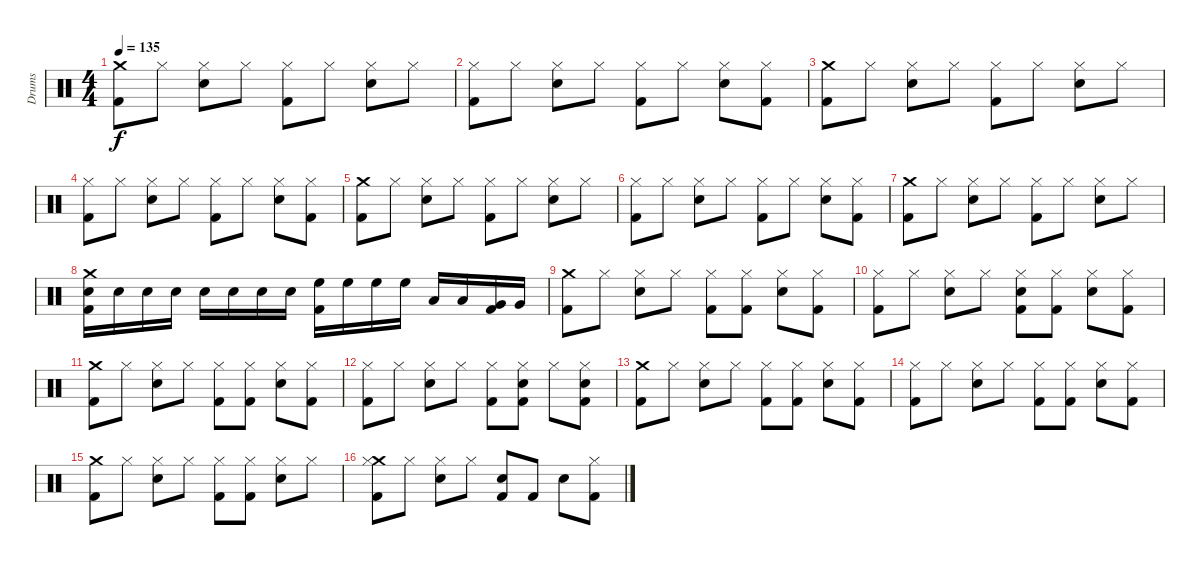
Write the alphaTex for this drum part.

\track ("Drums" "Drums") {instrument percussion}
\staff {score}
\articulation defaults
\ts (4 4)
\tempo 135
\clef neutral
\ks c
("Crash medium (hit)" "Kick (hit) 2").8{dy f} "Hi-Hat (closed)".8 ("Hi-Hat (closed)" "Snare (hit) 2").8 "Hi-Hat (closed)".8 ("Hi-Hat (closed)" "Kick (hit) 2").8 "Hi-Hat (closed)".8 ("Hi-Hat (closed)" "Snare (hit) 2").8 "Hi-Hat (closed)".8 |
("Hi-Hat (closed)" "Kick (hit) 2").8 "Hi-Hat (closed)".8 ("Hi-Hat (closed)" "Snare (hit) 2").8 "Hi-Hat (closed)".8 ("Hi-Hat (closed)" "Kick (hit) 2").8 "Hi-Hat (closed)".8 ("Hi-Hat (closed)" "Snare (hit) 2").8 ("Hi-Hat (closed)" "Kick (hit) 2").8 |
("Crash medium (hit)" "Kick (hit) 2").8 "Hi-Hat (closed)".8 ("Hi-Hat (closed)" "Snare (hit) 2").8 "Hi-Hat (closed)".8 ("Hi-Hat (closed)" "Kick (hit) 2").8 "Hi-Hat (closed)".8 ("Hi-Hat (closed)" "Snare (hit) 2").8 "Hi-Hat (closed)".8 |
("Hi-Hat (closed)" "Kick (hit) 2").8 "Hi-Hat (closed)".8 ("Hi-Hat (closed)" "Snare (hit) 2").8 "Hi-Hat (closed)".8 ("Hi-Hat (closed)" "Kick (hit) 2").8 "Hi-Hat (closed)".8 ("Hi-Hat (closed)" "Snare (hit) 2").8 ("Hi-Hat (closed)" "Kick (hit) 2").8 |
("Crash medium (hit)" "Kick (hit) 2").8 "Hi-Hat (closed)".8 ("Hi-Hat (closed)" "Snare (hit) 2").8 "Hi-Hat (closed)".8 ("Hi-Hat (closed)" "Kick (hit) 2").8 "Hi-Hat (closed)".8 ("Hi-Hat (closed)" "Snare (hit) 2").8 "Hi-Hat (closed)".8 |
("Hi-Hat (closed)" "Kick (hit) 2").8 "Hi-Hat (closed)".8 ("Hi-Hat (closed)" "Snare (hit) 2").8 "Hi-Hat (closed)".8 ("Hi-Hat (closed)" "Kick (hit) 2").8 "Hi-Hat (closed)".8 ("Hi-Hat (closed)" "Snare (hit) 2").8 ("Hi-Hat (closed)" "Kick (hit) 2").8 |
("Crash medium (hit)" "Kick (hit) 2").8 "Hi-Hat (closed)".8 ("Hi-Hat (closed)" "Snare (hit) 2").8 "Hi-Hat (closed)".8 ("Hi-Hat (closed)" "Kick (hit) 2").8 "Hi-Hat (closed)".8 ("Hi-Hat (closed)" "Snare (hit) 2").8 "Hi-Hat (closed)".8 |
("Crash medium (hit)" "Snare (hit) 2" "Kick (hit) 2").16 "Snare (hit) 2".16 "Snare (hit) 2".16 "Snare (hit) 2".16 "Snare (hit) 2".16 "Snare (hit) 2".16 "Snare (hit) 2".16 "Snare (hit) 2".16 ("High Floor Tom (hit)" "Kick (hit) 2").16 "High Floor Tom (hit)".16 "High Floor Tom (hit)".16 "High Floor Tom (hit)".16 "Low Tom (hit)".16 "Low Tom (hit)".16 ("Very Low Tom (hit)" "Kick (hit) 2").16 "Very Low Tom (hit)".16 |
("Crash medium (hit)" "Kick (hit) 2").8 "Hi-Hat (closed)".8 ("Hi-Hat (closed)" "Snare (hit) 2").8 "Hi-Hat (closed)".8 ("Hi-Hat (closed)" "Kick (hit) 2").8 ("Hi-Hat (closed)" "Kick (hit) 2").8 ("Hi-Hat (closed)" "Snare (hit) 2").8 ("Hi-Hat (closed)" "Kick (hit) 2").8 |
("Hi-Hat (closed)" "Kick (hit) 2").8 "Hi-Hat (closed)".8 ("Hi-Hat (closed)" "Snare (hit) 2").8 "Hi-Hat (closed)".8 ("Hi-Hat (closed)" "Snare (hit) 2" "Kick (hit) 2").8 ("Hi-Hat (closed)" "Kick (hit) 2").8 ("Hi-Hat (closed)" "Snare (hit) 2").8 ("Hi-Hat (closed)" "Kick (hit) 2").8 |
("Crash medium (hit)" "Kick (hit) 2").8 "Hi-Hat (closed)".8 ("Hi-Hat (closed)" "Snare (hit) 2").8 "Hi-Hat (closed)".8 ("Hi-Hat (closed)" "Kick (hit) 2").8 ("Hi-Hat (closed)" "Kick (hit) 2").8 ("Hi-Hat (closed)" "Snare (hit) 2").8 ("Hi-Hat (closed)" "Kick (hit) 2").8 |
("Hi-Hat (closed)" "Kick (hit) 2").8 "Hi-Hat (closed)".8 ("Hi-Hat (closed)" "Snare (hit) 2").8 "Hi-Hat (closed)".8 ("Hi-Hat (closed)" "Kick (hit) 2").8 ("Hi-Hat (closed)" "Snare (hit) 2" "Kick (hit) 2").8 "Hi-Hat (closed)".8 ("Hi-Hat (closed)" "Snare (hit) 2" "Kick (hit) 2").8 |
("Crash medium (hit)" "Kick (hit) 2").8 "Hi-Hat (closed)".8 ("Hi-Hat (closed)" "Snare (hit) 2").8 "Hi-Hat (closed)".8 ("Hi-Hat (closed)" "Kick (hit) 2").8 ("Hi-Hat (closed)" "Kick (hit) 2").8 ("Hi-Hat (closed)" "Snare (hit) 2").8 ("Hi-Hat (closed)" "Kick (hit) 2").8 |
("Hi-Hat (closed)" "Kick (hit) 2").8 "Hi-Hat (closed)".8 ("Hi-Hat (closed)" "Snare (hit) 2").8 "Hi-Hat (closed)".8 ("Hi-Hat (closed)" "Kick (hit) 2").8 ("Hi-Hat (closed)" "Kick (hit) 2").8 ("Hi-Hat (closed)" "Snare (hit) 2").8 ("Hi-Hat (closed)" "Kick (hit) 2").8 |
("Crash medium (hit)" "Kick (hit) 2").8 "Hi-Hat (closed)".8 ("Hi-Hat (closed)" "Snare (hit) 2").8 "Hi-Hat (closed)".8 ("Hi-Hat (closed)" "Kick (hit) 2").8 ("Hi-Hat (closed)" "Kick (hit) 2").8 ("Hi-Hat (closed)" "Snare (hit) 2").8 "Hi-Hat (closed)".8 |
("Crash medium (hit)" "Hi-Hat (closed)" "Kick (hit) 2").8 "Hi-Hat (closed)".8 ("Hi-Hat (closed)" "Snare (hit) 2").8 "Hi-Hat (closed)".8 ("Snare (hit) 2" "Kick (hit) 2").8 "Kick (hit) 2".8 "Snare (hit) 2".8 ("Hi-Hat (closed)" "Kick (hit) 2").8
